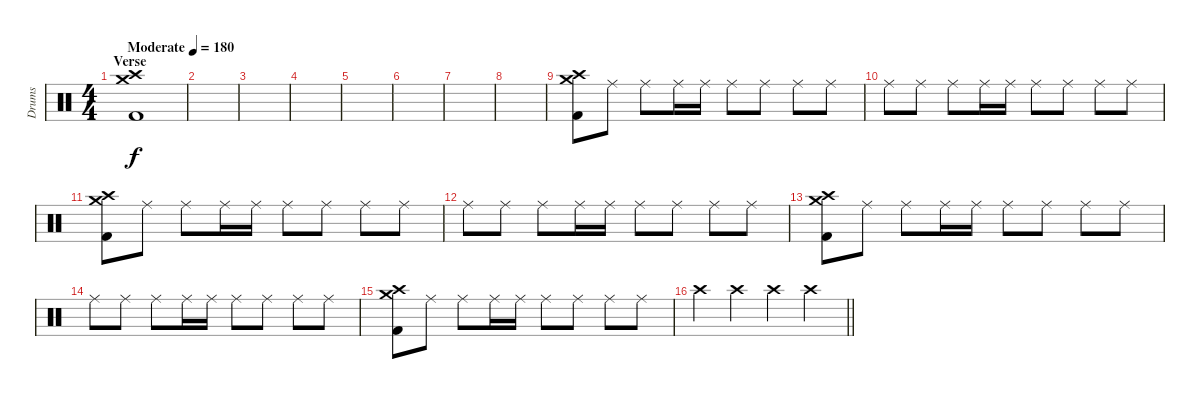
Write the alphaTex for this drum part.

\track ("Drums" "Drums") {instrument percussion}
\staff {score}
\articulation defaults
\ts (4 4)
\section ("" "Verse")
\tempo (180 "Moderate")
\clef neutral
\ks c
("Crash high (hit)" "Crash medium (hit)" "Kick (hit) 2").1{dy f} |
|
|
|
|
|
|
|
("Crash high (hit)" "Crash medium (hit)" "Kick (hit) 2").8 "Ride (middle)".8 "Ride (middle)".8 "Ride (middle)".16 "Ride (middle)".16 "Ride (middle)".8 "Ride (middle)".8 "Ride (middle)".8 "Ride (middle)".8 |
"Ride (middle)".8 "Ride (middle)".8 "Ride (middle)".8 "Ride (middle)".16 "Ride (middle)".16 "Ride (middle)".8 "Ride (middle)".8 "Ride (middle)".8 "Ride (middle)".8 |
("Crash high (hit)" "Crash medium (hit)" "Kick (hit) 2").8 "Ride (middle)".8 "Ride (middle)".8 "Ride (middle)".16 "Ride (middle)".16 "Ride (middle)".8 "Ride (middle)".8 "Ride (middle)".8 "Ride (middle)".8 |
"Ride (middle)".8 "Ride (middle)".8 "Ride (middle)".8 "Ride (middle)".16 "Ride (middle)".16 "Ride (middle)".8 "Ride (middle)".8 "Ride (middle)".8 "Ride (middle)".8 |
("Crash high (hit)" "Crash medium (hit)" "Kick (hit) 2").8 "Ride (middle)".8 "Ride (middle)".8 "Ride (middle)".16 "Ride (middle)".16 "Ride (middle)".8 "Ride (middle)".8 "Ride (middle)".8 "Ride (middle)".8 |
"Ride (middle)".8 "Ride (middle)".8 "Ride (middle)".8 "Ride (middle)".16 "Ride (middle)".16 "Ride (middle)".8 "Ride (middle)".8 "Ride (middle)".8 "Ride (middle)".8 |
("Crash high (hit)" "Crash medium (hit)" "Kick (hit) 2").8 "Ride (middle)".8 "Ride (middle)".8 "Ride (middle)".16 "Ride (middle)".16 "Ride (middle)".8 "Ride (middle)".8 "Ride (middle)".8 "Ride (middle)".8 |
\barLineRight lightlight "Crash high (hit)".4 "Crash high (hit)".4 "Crash high (hit)".4 "Crash high (hit)".4
